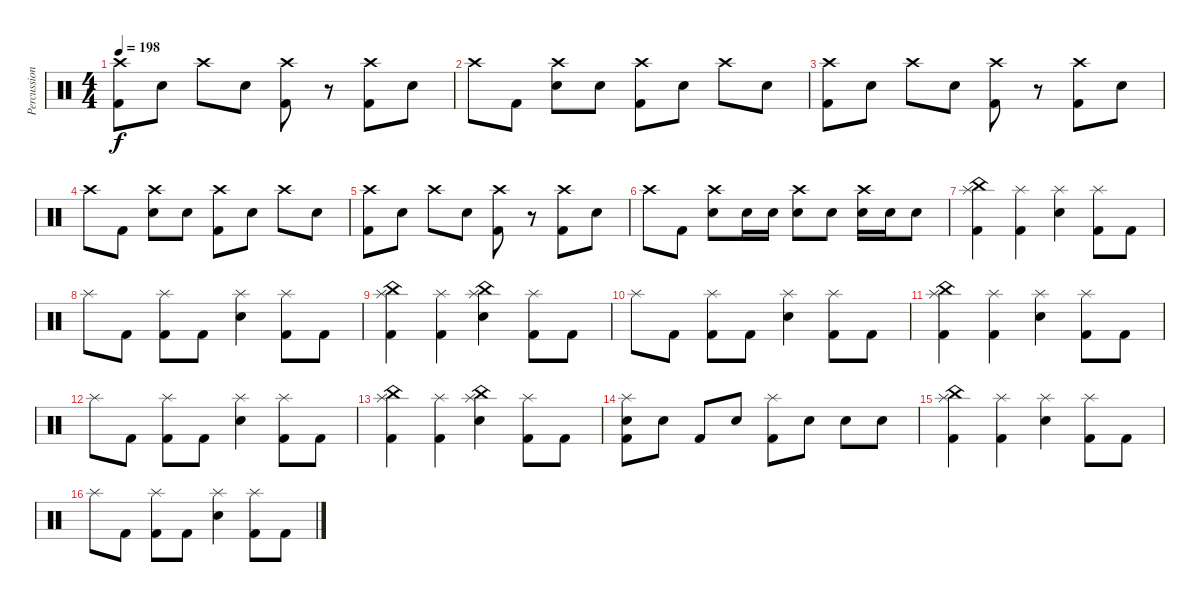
\track ("Percussion" "Percussion") {instrument percussion}
\staff {score}
\articulation defaults
\ts (4 4)
\tempo 198
\clef neutral
\ks c
("Crash high (hit)" "Kick (hit) 2").8{dy f} "Electric Snare (hit)".8 "Crash high (hit)".8 "Electric Snare (hit)".8 ("Crash high (hit)" "Kick (hit) 2").8 r.8 ("Crash high (hit)" "Kick (hit) 2").8 "Electric Snare (hit)".8 |
"Crash high (hit)".8 "Kick (hit) 2".8 ("Crash high (hit)" "Electric Snare (hit)").8 "Electric Snare (hit)".8 ("Crash high (hit)" "Kick (hit) 2").8 "Electric Snare (hit)".8 "Crash high (hit)".8 "Electric Snare (hit)".8 |
("Crash high (hit)" "Kick (hit) 2").8 "Electric Snare (hit)".8 "Crash high (hit)".8 "Electric Snare (hit)".8 ("Crash high (hit)" "Kick (hit) 2").8 r.8 ("Crash high (hit)" "Kick (hit) 2").8 "Electric Snare (hit)".8 |
"Crash high (hit)".8 "Kick (hit) 2".8 ("Crash high (hit)" "Electric Snare (hit)").8 "Electric Snare (hit)".8 ("Crash high (hit)" "Kick (hit) 2").8 "Electric Snare (hit)".8 "Crash high (hit)".8 "Electric Snare (hit)".8 |
("Crash high (hit)" "Kick (hit) 2").8 "Electric Snare (hit)".8 "Crash high (hit)".8 "Electric Snare (hit)".8 ("Crash high (hit)" "Kick (hit) 2").8 r.8 ("Crash high (hit)" "Kick (hit) 2").8 "Electric Snare (hit)".8 |
"Crash high (hit)".8 "Kick (hit) 2".8 ("Crash high (hit)" "Electric Snare (hit)").8 "Electric Snare (hit)".16 "Electric Snare (hit)".16 ("Crash high (hit)" "Electric Snare (hit)").8 "Electric Snare (hit)".8 ("Crash high (hit)" "Electric Snare (hit)").16 "Electric Snare (hit)".16 "Electric Snare (hit)".8 |
("China (hit)" "Splash (hit)" "Kick (hit) 2").4 ("Splash (hit)" "Kick (hit) 2").4 ("Splash (hit)" "Electric Snare (hit)").4 ("Splash (hit)" "Kick (hit) 2").8 "Kick (hit) 2".8 |
"Splash (hit)".8 "Kick (hit) 2".8 ("Splash (hit)" "Kick (hit) 2").8 "Kick (hit) 2".8 ("Splash (hit)" "Electric Snare (hit)").4 ("Splash (hit)" "Kick (hit) 2").8 "Kick (hit) 2".8 |
("China (hit)" "Splash (hit)" "Kick (hit) 2").4 ("Splash (hit)" "Kick (hit) 2").4 ("China (hit)" "Splash (hit)" "Electric Snare (hit)").4 ("Splash (hit)" "Kick (hit) 2").8 "Kick (hit) 2".8 |
"Splash (hit)".8 "Kick (hit) 2".8 ("Splash (hit)" "Kick (hit) 2").8 "Kick (hit) 2".8 ("Splash (hit)" "Electric Snare (hit)").4 ("Splash (hit)" "Kick (hit) 2").8 "Kick (hit) 2".8 |
("China (hit)" "Splash (hit)" "Kick (hit) 2").4 ("Splash (hit)" "Kick (hit) 2").4 ("Splash (hit)" "Electric Snare (hit)").4 ("Splash (hit)" "Kick (hit) 2").8 "Kick (hit) 2".8 |
"Splash (hit)".8 "Kick (hit) 2".8 ("Splash (hit)" "Kick (hit) 2").8 "Kick (hit) 2".8 ("Splash (hit)" "Electric Snare (hit)").4 ("Splash (hit)" "Kick (hit) 2").8 "Kick (hit) 2".8 |
("China (hit)" "Splash (hit)" "Kick (hit) 2").4 ("Splash (hit)" "Kick (hit) 2").4 ("China (hit)" "Splash (hit)" "Electric Snare (hit)").4 ("Splash (hit)" "Kick (hit) 2").8 "Kick (hit) 2".8 |
("Splash (hit)" "Electric Snare (hit)" "Kick (hit) 2").8 "Electric Snare (hit)".8 "Kick (hit) 2".8 "Electric Snare (hit)".8 ("Splash (hit)" "Kick (hit) 2").8 "Electric Snare (hit)".8 "Electric Snare (hit)".8 "Electric Snare (hit)".8 |
("China (hit)" "Splash (hit)" "Kick (hit) 2").4 ("Splash (hit)" "Kick (hit) 2").4 ("Splash (hit)" "Electric Snare (hit)").4 ("Splash (hit)" "Kick (hit) 2").8 "Kick (hit) 2".8 |
"Splash (hit)".8 "Kick (hit) 2".8 ("Splash (hit)" "Kick (hit) 2").8 "Kick (hit) 2".8 ("Splash (hit)" "Electric Snare (hit)").4 ("Splash (hit)" "Kick (hit) 2").8 "Kick (hit) 2".8
